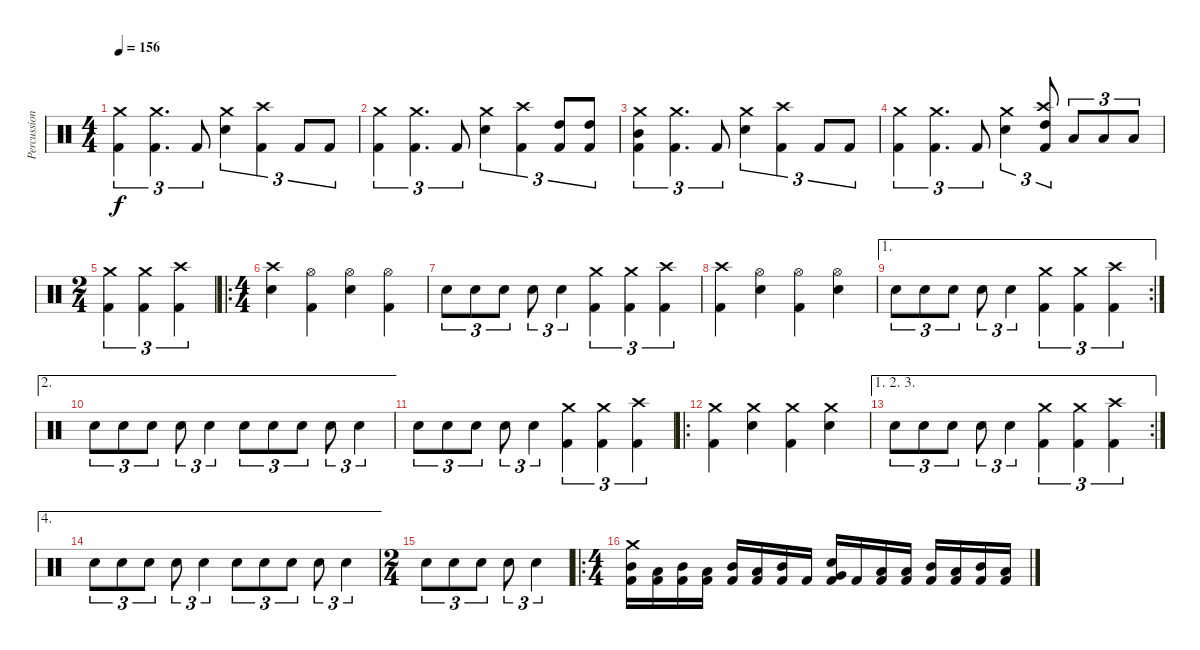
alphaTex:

\track ("Percussion" "Percussion") {instrument percussion}
\staff {score}
\articulation defaults
\ts (4 4)
\tempo 156
\clef neutral
\ks c
("Crash medium (hit)" "Kick (hit) 2").4{tu (3 2) dy f} ("Crash medium (hit)" "Kick (hit) 2").4{d tu (3 2)} "Kick (hit) 2".8{tu (3 2)} ("Crash medium (hit)" "Electric Snare (hit)").4{tu (3 2)} ("Crash high (hit)" "Kick (hit) 2").4{tu (3 2)} "Kick (hit) 2".8{tu (3 2)} "Kick (hit) 2".8{tu (3 2)} |
("Crash medium (hit)" "Kick (hit) 2").4{tu (3 2)} ("Crash medium (hit)" "Kick (hit) 2").4{d tu (3 2)} "Kick (hit) 2".8{tu (3 2)} ("Crash medium (hit)" "Electric Snare (hit)").4{tu (3 2)} ("Crash high (hit)" "Kick (hit) 2").4{tu (3 2)} ("High Tom (hit)" "Kick (hit) 2").8{tu (3 2)} ("High Tom (hit)" "Kick (hit) 2").8{tu (3 2)} |
("Crash medium (hit)" "Mid Tom (hit)" "Kick (hit) 2").4{tu (3 2)} ("Crash medium (hit)" "Kick (hit) 2").4{d tu (3 2)} "Kick (hit) 2".8{tu (3 2)} ("Crash medium (hit)" "Electric Snare (hit)").4{tu (3 2)} ("Crash high (hit)" "Kick (hit) 2").4{tu (3 2)} "Kick (hit) 2".8{tu (3 2)} "Kick (hit) 2".8{tu (3 2)} |
("Crash medium (hit)" "Kick (hit) 2").4{tu (3 2)} ("Crash medium (hit)" "Kick (hit) 2").4{d tu (3 2)} "Kick (hit) 2".8{tu (3 2)} ("Crash medium (hit)" "Electric Snare (hit)").4{tu (3 2)} ("Crash high (hit)" "High Tom (hit)" "Kick (hit) 2").8{tu (3 2)} "Low Tom (hit)".8{tu (3 2)} "Low Tom (hit)".8{tu (3 2)} "Low Tom (hit)".8{tu (3 2)} |
\ts (2 4)
("Crash medium (hit)" "Kick (hit) 2").4{tu (3 2)} ("Crash medium (hit)" "Kick (hit) 2").4{tu (3 2)} ("Crash high (hit)" "Kick (hit) 2").4{tu (3 2)} |
\ro
\ts (4 4)
("Crash high (hit)" "Electric Snare (hit)").4 ("Hi-Hat (open)" "Kick (hit) 2").4 ("Hi-Hat (open)" "Electric Snare (hit)").4 ("Hi-Hat (open)" "Kick (hit) 2").4 |
"Electric Snare (hit)".8{tu (3 2)} "Electric Snare (hit)".8{tu (3 2)} "Electric Snare (hit)".8{tu (3 2)} "Electric Snare (hit)".8{tu (3 2)} "Electric Snare (hit)".4{tu (3 2)} ("Crash medium (hit)" "Kick (hit) 2").4{tu (3 2)} ("Crash medium (hit)" "Kick (hit) 2").4{tu (3 2)} ("Crash high (hit)" "Kick (hit) 2").4{tu (3 2)} |
("Crash high (hit)" "Kick (hit) 2").4 ("Hi-Hat (open)" "Electric Snare (hit)").4 ("Hi-Hat (open)" "Kick (hit) 2").4 ("Hi-Hat (open)" "Electric Snare (hit)").4 |
\ae 1
\rc 2 "Electric Snare (hit)".8{tu (3 2)} "Electric Snare (hit)".8{tu (3 2)} "Electric Snare (hit)".8{tu (3 2)} "Electric Snare (hit)".8{tu (3 2)} "Electric Snare (hit)".4{tu (3 2)}
("Crash medium (hit)" "Kick (hit) 2").4{tu (3 2)} ("Crash medium (hit)" "Kick (hit) 2").4{tu (3 2)} ("Crash high (hit)" "Kick (hit) 2").4{tu (3 2)} |
\ae 2 "Electric Snare (hit)".8{tu (3 2)} "Electric Snare (hit)".8{tu (3 2)} "Electric Snare (hit)".8{tu (3 2)} "Electric Snare (hit)".8{tu (3 2)} "Electric Snare (hit)".4{tu (3 2)} "Electric Snare (hit)".8{tu (3 2)} "Electric Snare (hit)".8{tu (3 2)} "Electric Snare (hit)".8{tu (3 2)} "Electric Snare (hit)".8{tu (3 2)} "Electric Snare (hit)".4{tu (3 2)}
|
"Electric Snare (hit)".8{tu (3 2)} "Electric Snare (hit)".8{tu (3 2)} "Electric Snare (hit)".8{tu (3 2)} "Electric Snare (hit)".8{tu (3 2)} "Electric Snare (hit)".4{tu (3 2)} ("Crash medium (hit)" "Kick (hit) 2").4{tu (3 2)} ("Crash medium (hit)" "Kick (hit) 2").4{tu (3 2)} ("Crash high (hit)" "Kick (hit) 2").4{tu (3 2)} |
\ro
("Crash medium (hit)" "Kick (hit) 2").4 ("Crash medium (hit)" "Electric Snare (hit)").4 ("Crash medium (hit)" "Kick (hit) 2").4 ("Crash medium (hit)" "Electric Snare (hit)").4 |
\ae (1 2 3)
\rc 2 "Electric Snare (hit)".8{tu (3 2)} "Electric Snare (hit)".8{tu (3 2)} "Electric Snare (hit)".8{tu (3 2)} "Electric Snare (hit)".8{tu (3 2)} "Electric Snare (hit)".4{tu (3 2)}
("Crash medium (hit)" "Kick (hit) 2").4{tu (3 2)} ("Crash medium (hit)" "Kick (hit) 2").4{tu (3 2)} ("Crash high (hit)" "Kick (hit) 2").4{tu (3 2)} |
\ae 4 "Electric Snare (hit)".8{tu (3 2)} "Electric Snare (hit)".8{tu (3 2)} "Electric Snare (hit)".8{tu (3 2)} "Electric Snare (hit)".8{tu (3 2)} "Electric Snare (hit)".4{tu (3 2)} "Electric Snare (hit)".8{tu (3 2)} "Electric Snare (hit)".8{tu (3 2)} "Electric Snare (hit)".8{tu (3 2)} "Electric Snare (hit)".8{tu (3 2)} "Electric Snare (hit)".4{tu (3 2)}
|
\ts (2 4)
"Electric Snare (hit)".8{tu (3 2)} "Electric Snare (hit)".8{tu (3 2)} "Electric Snare (hit)".8{tu (3 2)} "Electric Snare (hit)".8{tu (3 2)} "Electric Snare (hit)".4{tu (3 2)} |
\ro
\ts (4 4)
("Crash medium (hit)" "Mid Tom (hit)" "Kick (hit) 2").16 ("Low Tom (hit)" "Kick (hit) 2").16 ("Mid Tom (hit)" "Kick (hit) 2").16 ("Low Tom (hit)" "Kick (hit) 2").16 ("Mid Tom (hit)" "Kick (hit) 2").16 ("Low Tom (hit)" "Kick (hit) 2").16 ("Mid Tom (hit)" "Kick (hit) 2").16 "Kick (hit) 2".16 ("Electric Snare (hit)" "Very Low Tom (hit)" "Kick (hit) 2").16 "Kick (hit) 2".16 ("Low Floor Tom (hit)" "Kick (hit) 2").16 ("Low Tom (hit)" "Kick (hit) 2").16 ("Mid Tom (hit)" "Kick (hit) 2").16 ("Low Tom (hit)" "Kick (hit) 2").16 ("Mid Tom (hit)" "Kick (hit) 2").16 ("Low Tom (hit)" "Kick (hit) 2").16
